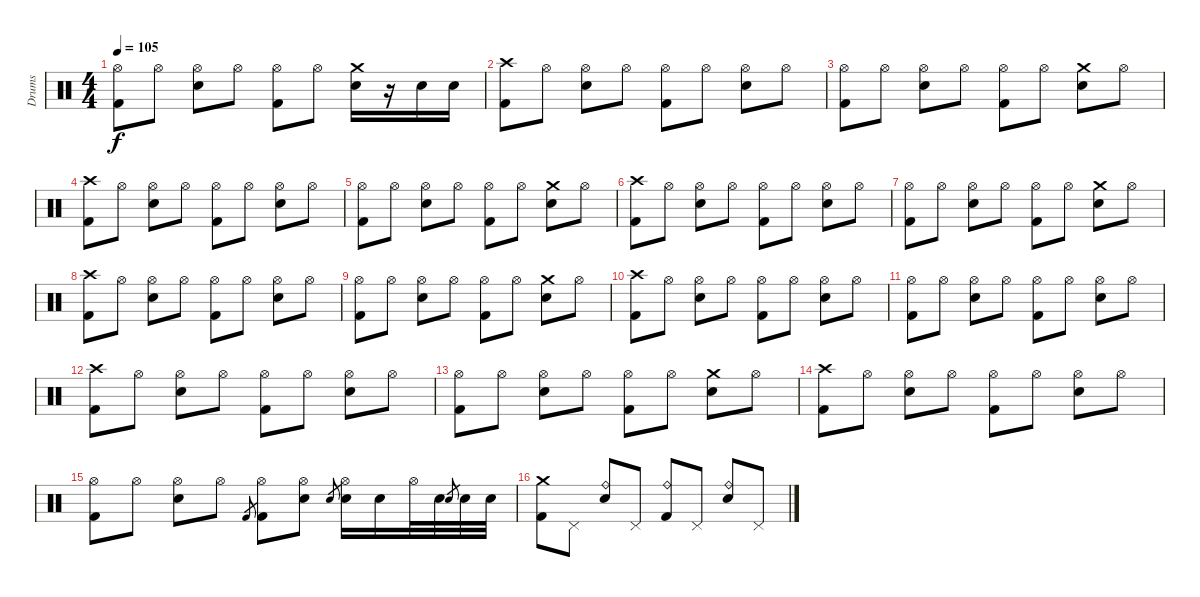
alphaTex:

\track ("Drums" "Drums") {instrument percussion}
\staff {score}
\articulation defaults
\ts (4 4)
\tempo 105
\clef neutral
\ks c
("Hi-Hat (open)" "Kick (hit) 2").8{dy f} "Hi-Hat (open)".8 ("Hi-Hat (open)" "Snare (hit) 2").8 "Hi-Hat (open)".8 ("Hi-Hat (open)" "Kick (hit) 2").8 "Hi-Hat (open)".8 ("Crash medium (hit)" "Snare (hit) 2").16 r.16 "Snare (hit) 2".16 "Snare (hit) 2".16 |
("Crash high (hit)" "Kick (hit) 2").8 "Hi-Hat (open)".8 ("Hi-Hat (open)" "Snare (hit) 2").8 "Hi-Hat (open)".8 ("Hi-Hat (open)" "Kick (hit) 2").8 "Hi-Hat (open)".8 ("Hi-Hat (open)" "Snare (hit) 2").8 "Hi-Hat (open)".8 |
("Hi-Hat (open)" "Kick (hit) 2").8 "Hi-Hat (open)".8 ("Hi-Hat (open)" "Snare (hit) 2").8 "Hi-Hat (open)".8 ("Hi-Hat (open)" "Kick (hit) 2").8 "Hi-Hat (open)".8 ("Crash medium (hit)" "Snare (hit) 2").8 "Hi-Hat (open)".8 |
("Crash high (hit)" "Kick (hit) 2").8 "Hi-Hat (open)".8 ("Hi-Hat (open)" "Snare (hit) 2").8 "Hi-Hat (open)".8 ("Hi-Hat (open)" "Kick (hit) 2").8 "Hi-Hat (open)".8 ("Hi-Hat (open)" "Snare (hit) 2").8 "Hi-Hat (open)".8 |
("Hi-Hat (open)" "Kick (hit) 2").8 "Hi-Hat (open)".8 ("Hi-Hat (open)" "Snare (hit) 2").8 "Hi-Hat (open)".8 ("Hi-Hat (open)" "Kick (hit) 2").8 "Hi-Hat (open)".8 ("Crash medium (hit)" "Snare (hit) 2").8 "Hi-Hat (open)".8 |
("Crash high (hit)" "Kick (hit) 2").8 "Hi-Hat (open)".8 ("Hi-Hat (open)" "Snare (hit) 2").8 "Hi-Hat (open)".8 ("Hi-Hat (open)" "Kick (hit) 2").8 "Hi-Hat (open)".8 ("Hi-Hat (open)" "Snare (hit) 2").8 "Hi-Hat (open)".8 |
("Hi-Hat (open)" "Kick (hit) 2").8 "Hi-Hat (open)".8 ("Hi-Hat (open)" "Snare (hit) 2").8 "Hi-Hat (open)".8 ("Hi-Hat (open)" "Kick (hit) 2").8 "Hi-Hat (open)".8 ("Crash medium (hit)" "Snare (hit) 2").8 "Hi-Hat (open)".8 |
("Crash high (hit)" "Kick (hit) 2").8 "Hi-Hat (open)".8 ("Hi-Hat (open)" "Snare (hit) 2").8 "Hi-Hat (open)".8 ("Hi-Hat (open)" "Kick (hit) 2").8 "Hi-Hat (open)".8 ("Hi-Hat (open)" "Snare (hit) 2").8 "Hi-Hat (open)".8 |
("Hi-Hat (open)" "Kick (hit) 2").8 "Hi-Hat (open)".8 ("Hi-Hat (open)" "Snare (hit) 2").8 "Hi-Hat (open)".8 ("Hi-Hat (open)" "Kick (hit) 2").8 "Hi-Hat (open)".8 ("Crash medium (hit)" "Snare (hit) 2").8 "Hi-Hat (open)".8 |
("Crash high (hit)" "Kick (hit) 2").8 "Hi-Hat (open)".8 ("Hi-Hat (open)" "Snare (hit) 2").8 "Hi-Hat (open)".8 ("Hi-Hat (open)" "Kick (hit) 2").8 "Hi-Hat (open)".8 ("Hi-Hat (open)" "Snare (hit) 2").8 "Hi-Hat (open)".8 |
("Hi-Hat (open)" "Kick (hit) 2").8 "Hi-Hat (open)".8 ("Hi-Hat (open)" "Snare (hit) 2").8 "Hi-Hat (open)".8 ("Hi-Hat (open)" "Kick (hit) 2").8 "Hi-Hat (open)".8 ("Hi-Hat (open)" "Snare (hit) 2").8 "Hi-Hat (open)".8 |
("Crash high (hit)" "Kick (hit) 2").8 "Hi-Hat (open)".8 ("Hi-Hat (open)" "Snare (hit) 2").8 "Hi-Hat (open)".8 ("Hi-Hat (open)" "Kick (hit) 2").8 "Hi-Hat (open)".8 ("Hi-Hat (open)" "Snare (hit) 2").8 "Hi-Hat (open)".8 |
("Hi-Hat (open)" "Kick (hit) 2").8 "Hi-Hat (open)".8 ("Hi-Hat (open)" "Snare (hit) 2").8 "Hi-Hat (open)".8 ("Hi-Hat (open)" "Kick (hit) 2").8 "Hi-Hat (open)".8 ("Crash medium (hit)" "Snare (hit) 2").8 "Hi-Hat (open)".8 |
("Crash high (hit)" "Kick (hit) 2").8 "Hi-Hat (open)".8 ("Hi-Hat (open)" "Snare (hit) 2").8 "Hi-Hat (open)".8 ("Hi-Hat (open)" "Kick (hit) 2").8 "Hi-Hat (open)".8 ("Hi-Hat (open)" "Snare (hit) 2").8 "Hi-Hat (open)".8 |
("Hi-Hat (open)" "Kick (hit) 2").8 "Hi-Hat (open)".8 ("Hi-Hat (open)" "Snare (hit) 2").8 "Hi-Hat (open)".8 "Kick (hit) 2".8{gr} ("Hi-Hat (open)" "Kick (hit) 2").8 ("Hi-Hat (open)" "Snare (hit) 2").8 "Snare (hit) 2".8{gr} ("Hi-Hat (open)" "Snare (hit) 2").16 "Snare (hit) 2".16 "Hi-Hat (open)".32 "Snare (hit) 2".32 "Snare (hit) 2".8{gr} "Snare (hit) 2".32 "Snare (hit) 2".32 |
("Crash medium (hit)" "Kick (hit) 2").8 "Pedal Hi-Hat (hit)".8 ("Ride (bell)" "Snare (hit) 2").8 "Pedal Hi-Hat (hit)".8 ("Ride (bell)" "Kick (hit) 2").8 "Pedal Hi-Hat (hit)".8 ("Ride (bell)" "Snare (hit) 2").8 "Pedal Hi-Hat (hit)".8
